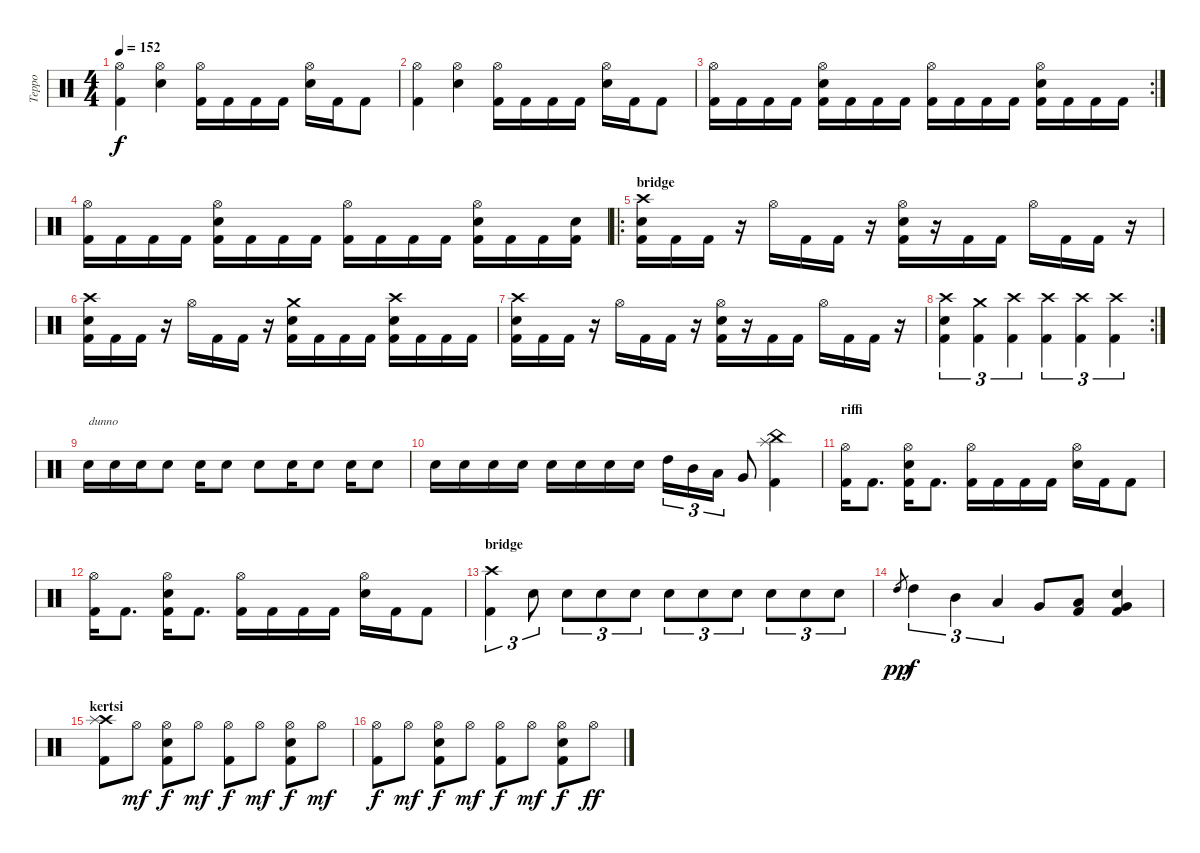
\track ("Teppo" "Teppo") {instrument percussion}
\staff {score}
\articulation defaults
\ts (4 4)
\tempo 152
\clef neutral
\ks c
("Hi-Hat (open)" "Kick (hit) 2").4{dy f} ("Hi-Hat (open)" "Electric Snare (hit)").4 ("Hi-Hat (open)" "Kick (hit) 2").16 "Kick (hit) 2".16 "Kick (hit) 2".16 "Kick (hit) 2".16 ("Hi-Hat (open)" "Electric Snare (hit)").16 "Kick (hit) 2".16 "Kick (hit) 2".8 |
("Hi-Hat (open)" "Kick (hit) 2").4 ("Hi-Hat (open)" "Electric Snare (hit)").4 ("Hi-Hat (open)" "Kick (hit) 2").16 "Kick (hit) 2".16 "Kick (hit) 2".16 "Kick (hit) 2".16 ("Hi-Hat (open)" "Electric Snare (hit)").16 "Kick (hit) 2".16 "Kick (hit) 2".8 |
\rc 2
("Hi-Hat (open)" "Kick (hit) 2").16 "Kick (hit) 2".16 "Kick (hit) 2".16 "Kick (hit) 2".16 ("Hi-Hat (open)" "Electric Snare (hit)" "Kick (hit) 2").16 "Kick (hit) 2".16 "Kick (hit) 2".16 "Kick (hit) 2".16 ("Hi-Hat (open)" "Kick (hit) 2").16 "Kick (hit) 2".16 "Kick (hit) 2".16 "Kick (hit) 2".16 ("Hi-Hat (open)" "Electric Snare (hit)" "Kick (hit) 2").16 "Kick (hit) 2".16 "Kick (hit) 2".16 "Kick (hit) 2".16 |
("Hi-Hat (open)" "Kick (hit) 2").16 "Kick (hit) 2".16 "Kick (hit) 2".16 "Kick (hit) 2".16 ("Hi-Hat (open)" "Electric Snare (hit)" "Kick (hit) 2").16 "Kick (hit) 2".16 "Kick (hit) 2".16 "Kick (hit) 2".16 ("Hi-Hat (open)" "Kick (hit) 2").16 "Kick (hit) 2".16 "Kick (hit) 2".16 "Kick (hit) 2".16 ("Hi-Hat (open)" "Electric Snare (hit)" "Kick (hit) 2").16 "Kick (hit) 2".16 "Kick (hit) 2".16 ("Electric Snare (hit)" "Kick (hit) 2").16 |
\ro
\section ("" "bridge")
("Crash high (hit)" "Electric Snare (hit)" "Kick (hit) 2").16 "Kick (hit) 2".16 "Kick (hit) 2".16 r.16 "Hi-Hat (open)".16 "Kick (hit) 2".16 "Kick (hit) 2".16 r.16 ("Hi-Hat (open)" "Electric Snare (hit)" "Kick (hit) 2").16 r.16 "Kick (hit) 2".16 "Kick (hit) 2".16 "Hi-Hat (open)".16 "Kick (hit) 2".16 "Kick (hit) 2".16 r.16 |
("Crash high (hit)" "Electric Snare (hit)" "Kick (hit) 2").16 "Kick (hit) 2".16 "Kick (hit) 2".16 r.16 "Hi-Hat (open)".16 "Kick (hit) 2".16 "Kick (hit) 2".16 r.16 ("Crash medium (hit)" "Electric Snare (hit)" "Kick (hit) 2").16 "Kick (hit) 2".16 "Kick (hit) 2".16 "Kick (hit) 2".16 ("Crash high (hit)" "Electric Snare (hit)" "Kick (hit) 2").16 "Kick (hit) 2".16 "Kick (hit) 2".16 "Kick (hit) 2".16 |
("Crash high (hit)" "Electric Snare (hit)" "Kick (hit) 2").16 "Kick (hit) 2".16 "Kick (hit) 2".16 r.16 "Hi-Hat (open)".16 "Kick (hit) 2".16 "Kick (hit) 2".16 r.16 ("Hi-Hat (open)" "Electric Snare (hit)" "Kick (hit) 2").16 r.16 "Kick (hit) 2".16 "Kick (hit) 2".16 "Hi-Hat (open)".16 "Kick (hit) 2".16 "Kick (hit) 2".16 r.16 |
\rc 2
("Crash high (hit)" "Electric Snare (hit)" "Kick (hit) 2").4{tu (3 2)} ("Crash medium (hit)" "Kick (hit) 2").4{tu (3 2)} ("Crash high (hit)" "Kick (hit) 2").4{tu (3 2)} ("Crash high (hit)" "Kick (hit) 2").4{tu (3 2)} ("Crash high (hit)" "Kick (hit) 2").4{tu (3 2)} ("Crash high (hit)" "Kick (hit) 2").4{tu (3 2)} |
"Electric Snare (hit)".16{txt "dunno"} "Electric Snare (hit)".16 "Electric Snare (hit)".16 "Electric Snare (hit)".8 "Electric Snare (hit)".16 "Electric Snare (hit)".8 "Electric Snare (hit)".8 "Electric Snare (hit)".16 "Electric Snare (hit)".8 "Electric Snare (hit)".16 "Electric Snare (hit)".8 |
"Electric Snare (hit)".16 "Electric Snare (hit)".16 "Electric Snare (hit)".16 "Electric Snare (hit)".16 "Electric Snare (hit)".16 "Electric Snare (hit)".16 "Electric Snare (hit)".16 "Electric Snare (hit)".16 "High Tom (hit)".16{tu (3 2)} "Mid Tom (hit)".16{tu (3 2)} "Low Tom (hit)".16{tu (3 2)} "Very Low Tom (hit)".8 ("China (hit)" "Splash (hit)" "Kick (hit) 2").4 |
\section ("" "riffi")
("Hi-Hat (open)" "Kick (hit) 2").16 "Kick (hit) 2".8{d} ("Hi-Hat (open)" "Electric Snare (hit)" "Kick (hit) 2").16 "Kick (hit) 2".8{d} ("Hi-Hat (open)" "Kick (hit) 2").16 "Kick (hit) 2".16 "Kick (hit) 2".16 "Kick (hit) 2".16 ("Hi-Hat (open)" "Electric Snare (hit)").16 "Kick (hit) 2".16 "Kick (hit) 2".8 |
("Hi-Hat (open)" "Kick (hit) 2").16 "Kick (hit) 2".8{d} ("Hi-Hat (open)" "Electric Snare (hit)" "Kick (hit) 2").16 "Kick (hit) 2".8{d} ("Hi-Hat (open)" "Kick (hit) 2").16 "Kick (hit) 2".16 "Kick (hit) 2".16 "Kick (hit) 2".16 ("Hi-Hat (open)" "Electric Snare (hit)").16 "Kick (hit) 2".16 "Kick (hit) 2".8 |
\section ("" "bridge")
("Crash high (hit)" "Kick (hit) 2").4{tu (3 2)} "Electric Snare (hit)".8{tu (3 2)} "Electric Snare (hit)".8{tu (3 2)} "Electric Snare (hit)".8{tu (3 2)} "Electric Snare (hit)".8{tu (3 2)} "Electric Snare (hit)".8{tu (3 2)} "Electric Snare (hit)".8{tu (3 2)} "Electric Snare (hit)".8{tu (3 2)} "Electric Snare (hit)".8{tu (3 2)} "Electric Snare (hit)".8{tu (3 2)} "Electric Snare (hit)".8{tu (3 2)} |
"High Tom (hit)".8{gr dy pp} "High Tom (hit)".4{tu (3 2) dy f} "Mid Tom (hit)".4{tu (3 2)} "Low Tom (hit)".4{tu (3 2)} "Very Low Tom (hit)".8 ("Low Floor Tom (hit)" "Kick (hit) 2").8 ("Very Low Tom (hit)" "Electric Snare (hit)" "Kick (hit) 2").4 |
\section ("" "kertsi")
("Crash high (hit)" "Splash (hit)" "Kick (hit) 2").8 "Hi-Hat (open)".8{dy mf} ("Hi-Hat (open)" "Electric Snare (hit)" "Kick (hit) 2").8{dy f} "Hi-Hat (open)".8{dy mf} ("Hi-Hat (open)" "Kick (hit) 2").8{dy f} "Hi-Hat (open)".8{dy mf} ("Hi-Hat (open)" "Electric Snare (hit)" "Kick (hit) 2").8{dy f} "Hi-Hat (open)".8{dy mf} |
("Hi-Hat (open)" "Kick (hit) 2").8{dy f} "Hi-Hat (open)".8{dy mf} ("Hi-Hat (open)" "Electric Snare (hit)" "Kick (hit) 2").8{dy f} "Hi-Hat (open)".8{dy mf} ("Hi-Hat (open)" "Kick (hit) 2").8{dy f} "Hi-Hat (open)".8{dy mf} ("Hi-Hat (open)" "Electric Snare (hit)" "Kick (hit) 2").8{dy f} "Hi-Hat (open)".8{dy ff}
